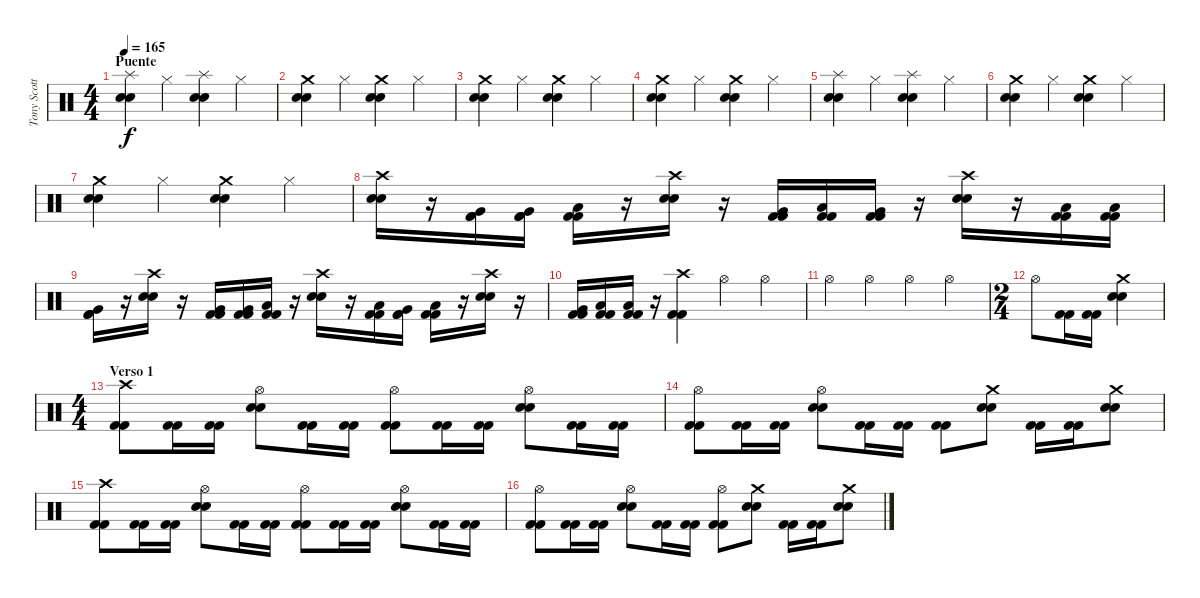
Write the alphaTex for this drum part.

\track ("Tony Scotto (bateria)" "Tony Scott") {instrument percussion}
\staff {score}
\articulation defaults
\ts (4 4)
\section ("" "Puente")
\tempo 165
\clef neutral
\ks c
("Splash (hit)" "Snare (hit) 2" "Snare (hit) 2").4{dy f} "Hi-Hat (closed)".4 ("Splash (hit)" "Snare (hit) 2" "Snare (hit) 2").4 "Hi-Hat (closed)".4 |
("Crash medium (hit)" "Snare (hit) 2" "Snare (hit) 2").4 "Hi-Hat (closed)".4 ("Crash medium (hit)" "Snare (hit) 2" "Snare (hit) 2").4 "Hi-Hat (closed)".4 |
("Crash medium (hit)" "Snare (hit) 2" "Snare (hit) 2").4 "Hi-Hat (closed)".4 ("Crash medium (hit)" "Snare (hit) 2" "Snare (hit) 2").4 "Hi-Hat (closed)".4 |
("Crash medium (hit)" "Snare (hit) 2" "Snare (hit) 2").4 "Hi-Hat (closed)".4 ("Crash medium (hit)" "Snare (hit) 2" "Snare (hit) 2").4 "Hi-Hat (closed)".4 |
("Splash (hit)" "Snare (hit) 2" "Snare (hit) 2").4 "Hi-Hat (closed)".4 ("Splash (hit)" "Snare (hit) 2" "Snare (hit) 2").4 "Hi-Hat (closed)".4 |
("Crash medium (hit)" "Snare (hit) 2" "Snare (hit) 2").4 "Hi-Hat (closed)".4 ("Crash medium (hit)" "Snare (hit) 2" "Snare (hit) 2").4 "Hi-Hat (closed)".4 |
("Crash medium (hit)" "Snare (hit) 2" "Snare (hit) 2").4 "Hi-Hat (closed)".4 ("Crash medium (hit)" "Snare (hit) 2" "Snare (hit) 2").4 "Hi-Hat (closed)".4 |
("Crash high (hit)" "Snare (hit) 2" "Snare (hit) 2").16 r.16 ("Very Low Tom (hit)" "Kick (hit) 2" "Kick (hit) 2").16 ("Very Low Tom (hit)" "Kick (hit) 2" "Kick (hit) 2").16 ("Low Floor Tom (hit)" "Kick (hit) 2" "Kick (hit) 2").16 r.16 ("Crash high (hit)" "Snare (hit) 2" "Snare (hit) 2").16 r.16 ("Very Low Tom (hit)" "Kick (hit) 2" "Kick (hit) 2").16 ("Low Floor Tom (hit)" "Kick (hit) 2" "Kick (hit) 2").16 ("Very Low Tom (hit)" "Kick (hit) 2" "Kick (hit) 2").16 r.16 ("Crash high (hit)" "Snare (hit) 2" "Snare (hit) 2").16 r.16 ("Low Tom (hit)" "Kick (hit) 2" "Kick (hit) 2").16 ("Low Tom (hit)" "Kick (hit) 2" "Kick (hit) 2").16 |
("Very Low Tom (hit)" "Kick (hit) 2" "Kick (hit) 2").16 r.16 ("Crash high (hit)" "Snare (hit) 2" "Snare (hit) 2").16 r.16 ("Very Low Tom (hit)" "Kick (hit) 2" "Kick (hit) 2").16 ("Very Low Tom (hit)" "Kick (hit) 2" "Kick (hit) 2").16 ("Low Tom (hit)" "Kick (hit) 2" "Kick (hit) 2").16 r.16 ("Crash high (hit)" "Snare (hit) 2" "Snare (hit) 2").16 r.16 ("Low Tom (hit)" "Kick (hit) 2" "Kick (hit) 2").16 ("Very Low Tom (hit)" "Kick (hit) 2" "Kick (hit) 2").16 ("Low Floor Tom (hit)" "Kick (hit) 2" "Kick (hit) 2").16 r.16 ("Crash high (hit)" "Snare (hit) 2" "Snare (hit) 2").16 r.16 |
("Very Low Tom (hit)" "Kick (hit) 2" "Kick (hit) 2").16 ("Low Tom (hit)" "Kick (hit) 2" "Kick (hit) 2").16 ("Low Tom (hit)" "Kick (hit) 2" "Kick (hit) 2").16 r.16 ("Crash high (hit)" "Kick (hit) 2" "Kick (hit) 2").4 "Hi-Hat (open)".4 "Hi-Hat (open)".4 |
"Hi-Hat (open)".4 "Hi-Hat (open)".4 "Hi-Hat (open)".4 "Hi-Hat (open)".4 |
\ts (2 4)
"Hi-Hat (open)".8 ("Kick (hit) 2" "Kick (hit) 2").16 ("Kick (hit) 2" "Kick (hit) 2").16 ("Crash medium (hit)" "Snare (hit) 2" "Snare (hit) 2").4 |
\ts (4 4)
\section ("" "Verso 1")
("Crash high (hit)" "Kick (hit) 2" "Kick (hit) 2").8 ("Kick (hit) 2" "Kick (hit) 2").16 ("Kick (hit) 2" "Kick (hit) 2").16 ("Hi-Hat (open)" "Snare (hit) 2" "Snare (hit) 2").8 ("Kick (hit) 2" "Kick (hit) 2").16 ("Kick (hit) 2" "Kick (hit) 2").16 ("Hi-Hat (open)" "Kick (hit) 2" "Kick (hit) 2").8 ("Kick (hit) 2" "Kick (hit) 2").16 ("Kick (hit) 2" "Kick (hit) 2").16 ("Hi-Hat (open)" "Snare (hit) 2" "Snare (hit) 2").8 ("Kick (hit) 2" "Kick (hit) 2").16 ("Kick (hit) 2" "Kick (hit) 2").16 |
("Hi-Hat (open)" "Kick (hit) 2" "Kick (hit) 2").8 ("Kick (hit) 2" "Kick (hit) 2").16 ("Kick (hit) 2" "Kick (hit) 2").16 ("Hi-Hat (open)" "Snare (hit) 2" "Snare (hit) 2").8 ("Kick (hit) 2" "Kick (hit) 2").16 ("Kick (hit) 2" "Kick (hit) 2").16 ("Kick (hit) 2" "Kick (hit) 2").8 ("Crash medium (hit)" "Snare (hit) 2" "Snare (hit) 2").8 ("Kick (hit) 2" "Kick (hit) 2").16 ("Kick (hit) 2" "Kick (hit) 2").16 ("Crash medium (hit)" "Snare (hit) 2" "Snare (hit) 2").8 |
("Crash high (hit)" "Kick (hit) 2" "Kick (hit) 2").8 ("Kick (hit) 2" "Kick (hit) 2").16 ("Kick (hit) 2" "Kick (hit) 2").16 ("Hi-Hat (open)" "Snare (hit) 2" "Snare (hit) 2").8 ("Kick (hit) 2" "Kick (hit) 2").16 ("Kick (hit) 2" "Kick (hit) 2").16 ("Hi-Hat (open)" "Kick (hit) 2" "Kick (hit) 2").8 ("Kick (hit) 2" "Kick (hit) 2").16 ("Kick (hit) 2" "Kick (hit) 2").16 ("Hi-Hat (open)" "Snare (hit) 2" "Snare (hit) 2").8 ("Kick (hit) 2" "Kick (hit) 2").16 ("Kick (hit) 2" "Kick (hit) 2").16 |
("Hi-Hat (open)" "Kick (hit) 2" "Kick (hit) 2").8 ("Kick (hit) 2" "Kick (hit) 2").16 ("Kick (hit) 2" "Kick (hit) 2").16 ("Hi-Hat (open)" "Snare (hit) 2" "Snare (hit) 2").8 ("Kick (hit) 2" "Kick (hit) 2").16 ("Kick (hit) 2" "Kick (hit) 2").16 ("Hi-Hat (open)" "Kick (hit) 2" "Kick (hit) 2").8 ("Crash medium (hit)" "Snare (hit) 2" "Snare (hit) 2").8 ("Kick (hit) 2" "Kick (hit) 2").16 ("Kick (hit) 2" "Kick (hit) 2").16 ("Crash medium (hit)" "Snare (hit) 2" "Snare (hit) 2").8
